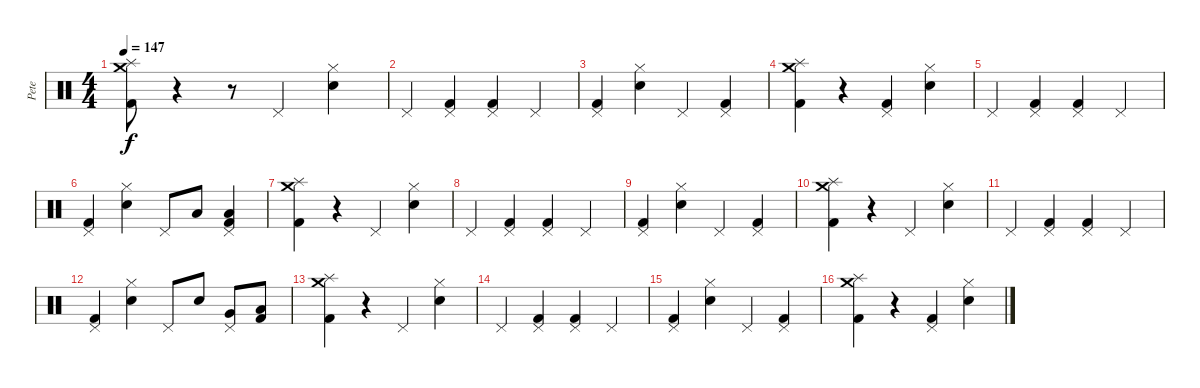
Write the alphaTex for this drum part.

\track ("Pete" "Pete") {instrument percussion}
\staff {score}
\articulation defaults
\ts (4 4)
\tempo 147
\clef neutral
\ks c
("Crash medium (hit)" "Splash (hit)" "Kick (hit) 2").8{dy f} r.4 r.8 "Pedal Hi-Hat (hit)".4 ("Hi-Hat (closed)" "Electric Snare (hit)").4 |
"Pedal Hi-Hat (hit)".4 ("Pedal Hi-Hat (hit)" "Kick (hit) 2").4 ("Pedal Hi-Hat (hit)" "Kick (hit) 2").4 "Pedal Hi-Hat (hit)".4 |
("Pedal Hi-Hat (hit)" "Kick (hit) 2").4 ("Hi-Hat (closed)" "Electric Snare (hit)").4 "Pedal Hi-Hat (hit)".4 ("Pedal Hi-Hat (hit)" "Kick (hit) 2").4 |
("Crash medium (hit)" "Splash (hit)" "Kick (hit) 2").4 r.4 ("Pedal Hi-Hat (hit)" "Kick (hit) 2").4 ("Hi-Hat (closed)" "Electric Snare (hit)").4 |
"Pedal Hi-Hat (hit)".4 ("Pedal Hi-Hat (hit)" "Kick (hit) 2").4 ("Pedal Hi-Hat (hit)" "Kick (hit) 2").4 "Pedal Hi-Hat (hit)".4 |
("Pedal Hi-Hat (hit)" "Kick (hit) 2").4 ("Hi-Hat (closed)" "Electric Snare (hit)").4 "Pedal Hi-Hat (hit)".8 "Low Tom (hit)".8 ("Pedal Hi-Hat (hit)" "Low Tom (hit)" "Kick (hit) 2").4 |
("Crash medium (hit)" "Splash (hit)" "Kick (hit) 2").4 r.4 "Pedal Hi-Hat (hit)".4 ("Hi-Hat (closed)" "Electric Snare (hit)").4 |
"Pedal Hi-Hat (hit)".4 ("Pedal Hi-Hat (hit)" "Kick (hit) 2").4 ("Pedal Hi-Hat (hit)" "Kick (hit) 2").4 "Pedal Hi-Hat (hit)".4 |
("Pedal Hi-Hat (hit)" "Kick (hit) 2").4 ("Hi-Hat (closed)" "Electric Snare (hit)").4 "Pedal Hi-Hat (hit)".4 ("Pedal Hi-Hat (hit)" "Kick (hit) 2").4 |
("Crash medium (hit)" "Splash (hit)" "Kick (hit) 2").4 r.4 "Pedal Hi-Hat (hit)".4 ("Hi-Hat (closed)" "Electric Snare (hit)").4 |
"Pedal Hi-Hat (hit)".4 ("Pedal Hi-Hat (hit)" "Kick (hit) 2").4 ("Pedal Hi-Hat (hit)" "Kick (hit) 2").4 "Pedal Hi-Hat (hit)".4 |
("Pedal Hi-Hat (hit)" "Kick (hit) 2").4 ("Hi-Hat (closed)" "Electric Snare (hit)").4 "Pedal Hi-Hat (hit)".8 "Electric Snare (hit)".8 ("Pedal Hi-Hat (hit)" "Very Low Tom (hit)").8 ("Low Tom (hit)" "Kick (hit) 2").8 |
("Crash medium (hit)" "Splash (hit)" "Kick (hit) 2").4 r.4 "Pedal Hi-Hat (hit)".4 ("Hi-Hat (closed)" "Electric Snare (hit)").4 |
"Pedal Hi-Hat (hit)".4 ("Pedal Hi-Hat (hit)" "Kick (hit) 2").4 ("Pedal Hi-Hat (hit)" "Kick (hit) 2").4 "Pedal Hi-Hat (hit)".4 |
("Pedal Hi-Hat (hit)" "Kick (hit) 2").4 ("Hi-Hat (closed)" "Electric Snare (hit)").4 "Pedal Hi-Hat (hit)".4 ("Pedal Hi-Hat (hit)" "Kick (hit) 2").4 |
("Crash medium (hit)" "Splash (hit)" "Kick (hit) 2").4 r.4 ("Pedal Hi-Hat (hit)" "Kick (hit) 2").4 ("Hi-Hat (closed)" "Electric Snare (hit)").4
